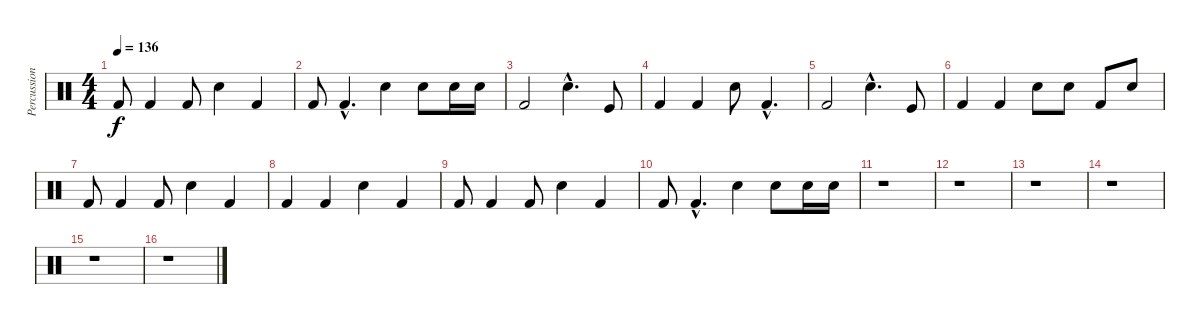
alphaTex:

\track ("Percussion 2" "Percussion") {instrument percussion}
\staff {score}
\articulation defaults
\ts (4 4)
\tempo 136
\clef neutral
\ks c "Kick (hit) 2".8{dy f} "Kick (hit) 2".4 "Kick (hit) 2".8 "Snare (hit) 2".4 "Kick (hit) 2".4
|
"Kick (hit) 2".8 "Kick (hit) 2"{hac}.4{d} "Snare (hit) 2".4 "Snare (hit) 2".8 "Snare (hit) 2".16 "Snare (hit) 2".16 |
"Kick (hit) 2".2 "Snare (hit) 2"{hac}.4{d} "Kick (hit)".8 |
"Kick (hit) 2".4 "Kick (hit) 2".4 "Snare (hit) 2".8 "Kick (hit) 2"{hac}.4{d} |
"Kick (hit) 2".2 "Snare (hit) 2"{hac}.4{d} "Kick (hit)".8 |
"Kick (hit) 2".4 "Kick (hit) 2".4 "Snare (hit) 2".8 "Snare (hit) 2".8 "Kick (hit) 2".8 "Snare (hit) 2".8 |
"Kick (hit) 2".8 "Kick (hit) 2".4 "Kick (hit) 2".8 "Snare (hit) 2".4 "Kick (hit) 2".4 |
"Kick (hit) 2".4 "Kick (hit) 2".4 "Snare (hit) 2".4 "Kick (hit) 2".4 |
"Kick (hit) 2".8 "Kick (hit) 2".4 "Kick (hit) 2".8 "Snare (hit) 2".4 "Kick (hit) 2".4 |
"Kick (hit) 2".8 "Kick (hit) 2"{hac}.4{d} "Snare (hit) 2".4 "Snare (hit) 2".8 "Snare (hit) 2".16 "Snare (hit) 2".16 |
r.1 |
r.1 |
r.1 |
r.1 |
r.1 |
r.1
